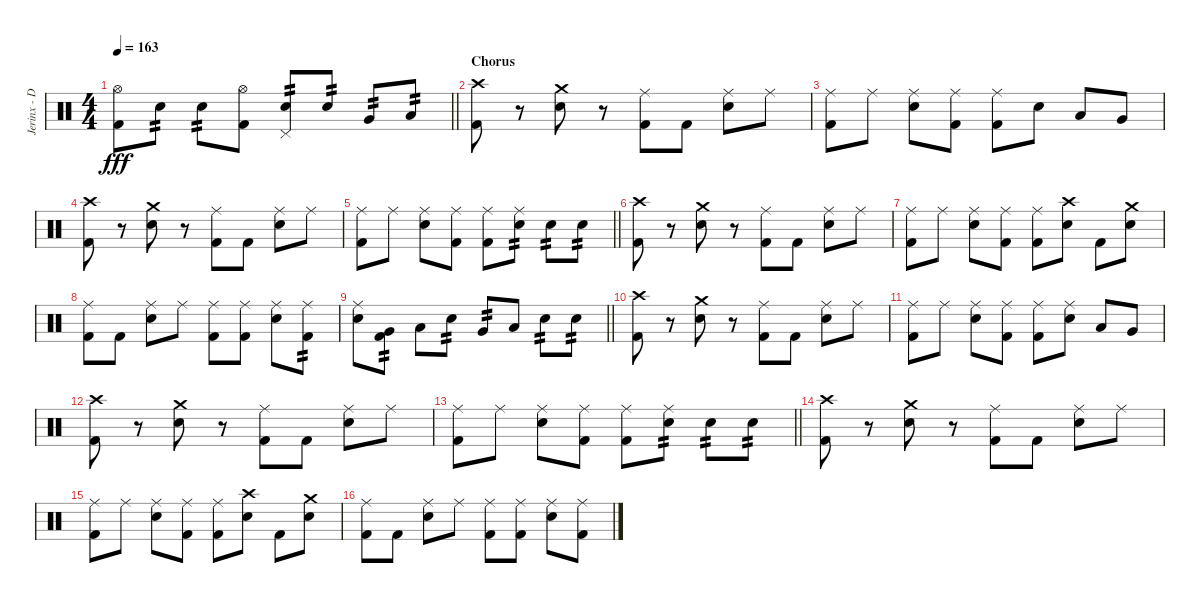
\track ("Jerinx - Drum" "Jerinx - D") {instrument percussion}
\staff {score}
\articulation defaults
\ts (4 4)
\tempo 163
\clef neutral
\barLineRight lightlight
\ks c
("Hi-Hat (open)" "Kick (hit) 2").8{dy fff} "Snare (hit) 2".8{tp 2} "Snare (hit) 2".8{tp 2} ("Hi-Hat (open)" "Kick (hit) 2").8 ("Pedal Hi-Hat (hit)" "Snare (hit) 2").8{tp 2} "Snare (hit) 2".8{tp 2} "Very Low Tom (hit)".8{tp 2} "Low Floor Tom (hit)".8{tp 2} |
\section ("" "Chorus")
("Kick (hit) 2" "Crash high (hit)").8 r.8 ("Snare (hit) 2" "Crash medium (hit)").8 r.8 ("Kick (hit) 2" "Ride (middle)").8 "Kick (hit) 2".8 ("Snare (hit) 2" "Ride (middle)").8 "Ride (middle)".8 |
("Kick (hit) 2" "Ride (middle)").8 "Ride (middle)".8 ("Snare (hit) 2" "Ride (middle)").8 ("Kick (hit) 2" "Ride (middle)").8 ("Kick (hit) 2" "Ride (middle)").8 "Snare (hit) 2".8 "Low Tom (hit)".8 "Very Low Tom (hit)".8 |
("Kick (hit) 2" "Crash high (hit)").8 r.8 ("Snare (hit) 2" "Crash medium (hit)").8 r.8 ("Kick (hit) 2" "Ride (middle)").8 "Kick (hit) 2".8 ("Snare (hit) 2" "Ride (middle)").8 "Ride (middle)".8 |
\barLineRight lightlight
("Kick (hit) 2" "Ride (middle)").8 "Ride (middle)".8 ("Snare (hit) 2" "Ride (middle)").8 ("Kick (hit) 2" "Ride (middle)").8 ("Kick (hit) 2" "Ride (middle)").8 ("Snare (hit) 2" "Ride (middle)").8{tp 2} "Snare (hit) 2".8{tp 2} "Snare (hit) 2".8{tp 2} |
("Kick (hit) 2" "Crash high (hit)").8 r.8 ("Snare (hit) 2" "Crash medium (hit)").8 r.8 ("Kick (hit) 2" "Ride (middle)").8 "Kick (hit) 2".8 ("Snare (hit) 2" "Ride (middle)").8 "Ride (middle)".8 |
("Kick (hit) 2" "Ride (middle)").8 "Ride (middle)".8 ("Snare (hit) 2" "Ride (middle)").8 ("Kick (hit) 2" "Ride (middle)").8 ("Kick (hit) 2" "Ride (middle)").8 ("Snare (hit) 2" "Crash high (hit)").8 "Kick (hit) 2".8 ("Snare (hit) 2" "Crash medium (hit)").8 |
("Kick (hit) 2" "Ride (middle)").8 "Kick (hit) 2".8 ("Snare (hit) 2" "Ride (middle)").8 "Ride (middle)".8 ("Kick (hit) 2" "Ride (middle)").8 ("Kick (hit) 2" "Ride (middle)").8 ("Snare (hit) 2" "Ride (middle)").8 ("Kick (hit) 2" "Ride (middle)").8{tp 2} |
\barLineRight lightlight
("Snare (hit) 2" "Ride (middle)").8 ("Kick (hit) 2" "Very Low Tom (hit)").8{tp 2} "Low Floor Tom (hit)".8 "Snare (hit) 2".8{tp 2} "Very Low Tom (hit)".8{tp 2} "Low Floor Tom (hit)".8 "Snare (hit) 2".8{tp 2} "Snare (hit) 2".8{tp 2} |
("Kick (hit) 2" "Crash high (hit)").8 r.8 ("Snare (hit) 2" "Crash medium (hit)").8 r.8 ("Kick (hit) 2" "Ride (middle)").8 "Kick (hit) 2".8 ("Snare (hit) 2" "Ride (middle)").8 "Ride (middle)".8 |
("Kick (hit) 2" "Ride (middle)").8 "Ride (middle)".8 ("Snare (hit) 2" "Ride (middle)").8 ("Kick (hit) 2" "Ride (middle)").8 ("Kick (hit) 2" "Ride (middle)").8 ("Snare (hit) 2" "Ride (middle)").8 "Low Tom (hit)".8 "Very Low Tom (hit)".8 |
("Kick (hit) 2" "Crash high (hit)").8 r.8 ("Snare (hit) 2" "Crash medium (hit)").8 r.8 ("Kick (hit) 2" "Ride (middle)").8 "Kick (hit) 2".8 ("Snare (hit) 2" "Ride (middle)").8 "Ride (middle)".8 |
\barLineRight lightlight
("Kick (hit) 2" "Ride (middle)").8 "Ride (middle)".8 ("Snare (hit) 2" "Ride (middle)").8 ("Kick (hit) 2" "Ride (middle)").8 ("Kick (hit) 2" "Ride (middle)").8 ("Snare (hit) 2" "Ride (middle)").8{tp 2} "Snare (hit) 2".8{tp 2} "Snare (hit) 2".8{tp 2} |
("Kick (hit) 2" "Crash high (hit)").8 r.8 ("Snare (hit) 2" "Crash medium (hit)").8 r.8 ("Kick (hit) 2" "Ride (middle)").8 "Kick (hit) 2".8 ("Snare (hit) 2" "Ride (middle)").8 "Ride (middle)".8 |
("Kick (hit) 2" "Ride (middle)").8 "Ride (middle)".8 ("Snare (hit) 2" "Ride (middle)").8 ("Kick (hit) 2" "Ride (middle)").8 ("Kick (hit) 2" "Ride (middle)").8 ("Snare (hit) 2" "Crash high (hit)").8 "Kick (hit) 2".8 ("Snare (hit) 2" "Crash medium (hit)").8 |
("Kick (hit) 2" "Ride (middle)").8 "Kick (hit) 2".8 ("Snare (hit) 2" "Ride (middle)").8 "Ride (middle)".8 ("Kick (hit) 2" "Ride (middle)").8 ("Kick (hit) 2" "Ride (middle)").8 ("Snare (hit) 2" "Ride (middle)").8 ("Kick (hit) 2" "Ride (middle)").8
